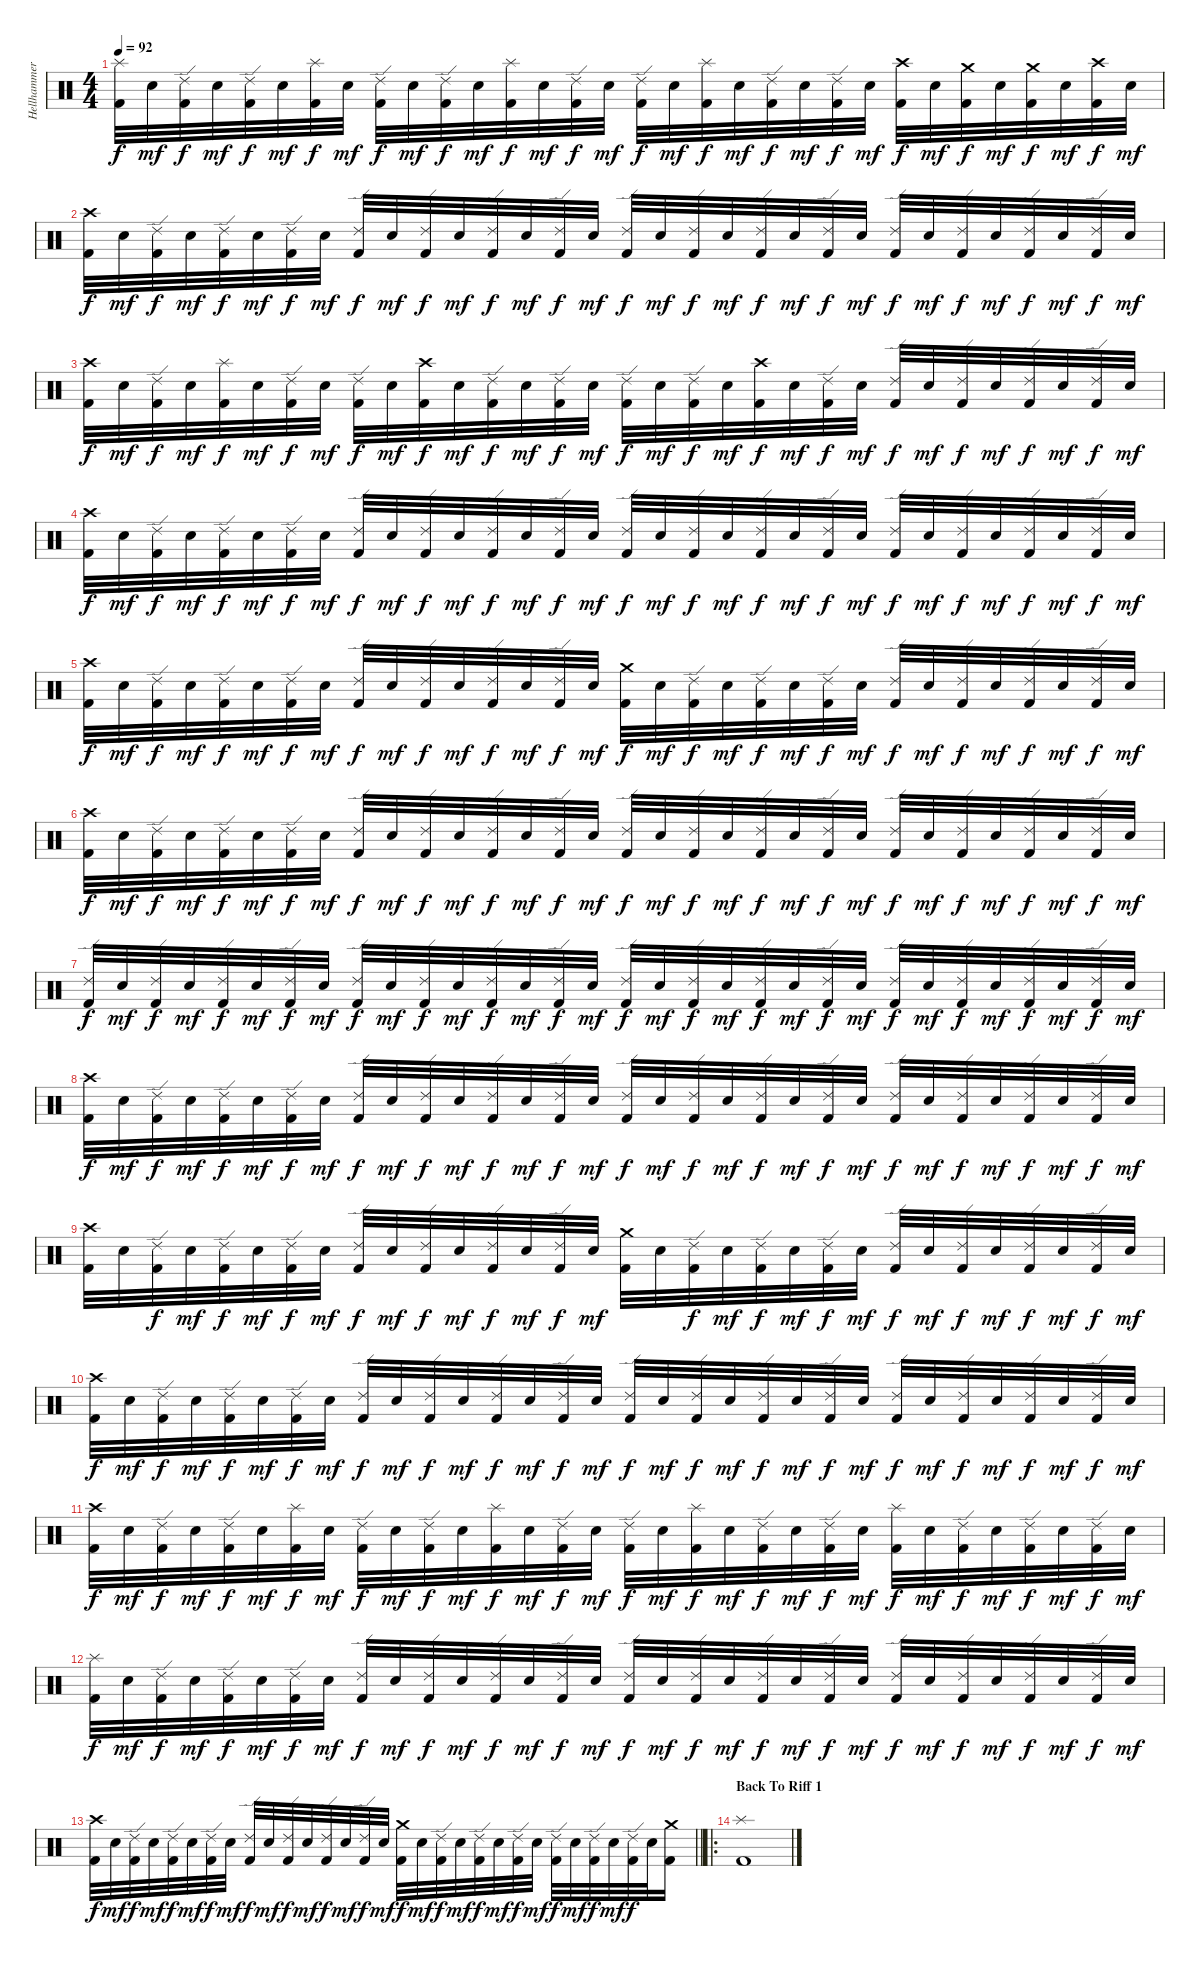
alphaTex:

\track ("Hellhammer" "Hellhammer") {instrument percussion}
\staff {score}
\articulation defaults
\ts (4 4)
\tempo 92
\clef neutral
\ks c
("Splash (hit)" "Kick (hit) 2").32{dy f} "Electric Snare (hit)".32{dy mf} ("Ride (edge) 2" "Kick (hit) 2").32{dy f} "Electric Snare (hit)".32{dy mf} ("Ride (edge) 2" "Kick (hit) 2").32{dy f} "Electric Snare (hit)".32{dy mf} ("Splash (hit)" "Kick (hit) 2").32{dy f} "Electric Snare (hit)".32{dy mf} ("Ride (edge) 2" "Kick (hit) 2").32{dy f} "Electric Snare (hit)".32{dy mf} ("Ride (edge) 2" "Kick (hit) 2").32{dy f} "Electric Snare (hit)".32{dy mf} ("Splash (hit)" "Kick (hit) 2").32{dy f} "Electric Snare (hit)".32{dy mf} ("Ride (edge) 2" "Kick (hit) 2").32{dy f} "Electric Snare (hit)".32{dy mf} ("Ride (edge) 2" "Kick (hit) 2").32{dy f} "Electric Snare (hit)".32{dy mf} ("Splash (hit)" "Kick (hit) 2").32{dy f} "Electric Snare (hit)".32{dy mf} ("Ride (edge) 2" "Kick (hit) 2").32{dy f} "Electric Snare (hit)".32{dy mf} ("Ride (edge) 2" "Kick (hit) 2").32{dy f} "Electric Snare (hit)".32{dy mf} ("Crash high (hit)" "Kick (hit) 2").32{dy f} "Electric Snare (hit)".32{dy mf} ("Crash medium (hit)" "Kick (hit) 2").32{dy f} "Electric Snare (hit)".32{dy mf} ("Crash medium (hit)" "Kick (hit) 2").32{dy f} "Electric Snare (hit)".32{dy mf} ("Crash high (hit)" "Kick (hit) 2").32{dy f} "Electric Snare (hit)".32{dy mf} |
("Crash high (hit)" "Kick (hit) 2").32{dy f} "Electric Snare (hit)".32{dy mf} ("Ride (edge) 2" "Kick (hit) 2").32{dy f} "Electric Snare (hit)".32{dy mf} ("Ride (edge) 2" "Kick (hit) 2").32{dy f} "Electric Snare (hit)".32{dy mf} ("Ride (edge) 2" "Kick (hit) 2").32{dy f} "Electric Snare (hit)".32{dy mf} ("Ride (edge) 2" "Kick (hit) 2").32{dy f} "Electric Snare (hit)".32{dy mf} ("Ride (edge) 2" "Kick (hit) 2").32{dy f} "Electric Snare (hit)".32{dy mf} ("Ride (edge) 2" "Kick (hit) 2").32{dy f} "Electric Snare (hit)".32{dy mf} ("Ride (edge) 2" "Kick (hit) 2").32{dy f} "Electric Snare (hit)".32{dy mf} ("Ride (edge) 2" "Kick (hit) 2").32{dy f} "Electric Snare (hit)".32{dy mf} ("Ride (edge) 2" "Kick (hit) 2").32{dy f} "Electric Snare (hit)".32{dy mf} ("Ride (edge) 2" "Kick (hit) 2").32{dy f} "Electric Snare (hit)".32{dy mf} ("Ride (edge) 2" "Kick (hit) 2").32{dy f} "Electric Snare (hit)".32{dy mf} ("Ride (edge) 2" "Kick (hit) 2").32{dy f} "Electric Snare (hit)".32{dy mf} ("Ride (edge) 2" "Kick (hit) 2").32{dy f} "Electric Snare (hit)".32{dy mf} ("Ride (edge) 2" "Kick (hit) 2").32{dy f} "Electric Snare (hit)".32{dy mf} ("Ride (edge) 2" "Kick (hit) 2").32{dy f} "Electric Snare (hit)".32{dy mf} |
("Crash high (hit)" "Kick (hit) 2").32{dy f} "Electric Snare (hit)".32{dy mf} ("Ride (edge) 2" "Kick (hit) 2").32{dy f} "Electric Snare (hit)".32{dy mf} ("Splash (hit)" "Kick (hit) 2").32{dy f} "Electric Snare (hit)".32{dy mf} ("Ride (edge) 2" "Kick (hit) 2").32{dy f} "Electric Snare (hit)".32{dy mf} ("Ride (edge) 2" "Kick (hit) 2").32{dy f} "Electric Snare (hit)".32{dy mf} ("Crash high (hit)" "Kick (hit) 2").32{dy f} "Electric Snare (hit)".32{dy mf} ("Ride (edge) 2" "Kick (hit) 2").32{dy f} "Electric Snare (hit)".32{dy mf} ("Ride (edge) 2" "Kick (hit) 2").32{dy f} "Electric Snare (hit)".32{dy mf} ("Ride (edge) 2" "Kick (hit) 2").32{dy f} "Electric Snare (hit)".32{dy mf} ("Ride (edge) 2" "Kick (hit) 2").32{dy f} "Electric Snare (hit)".32{dy mf} ("Crash high (hit)" "Kick (hit) 2").32{dy f} "Electric Snare (hit)".32{dy mf} ("Ride (edge) 2" "Kick (hit) 2").32{dy f} "Electric Snare (hit)".32{dy mf} ("Ride (edge) 2" "Kick (hit) 2").32{dy f} "Electric Snare (hit)".32{dy mf} ("Ride (edge) 2" "Kick (hit) 2").32{dy f} "Electric Snare (hit)".32{dy mf} ("Ride (edge) 2" "Kick (hit) 2").32{dy f} "Electric Snare (hit)".32{dy mf} ("Ride (edge) 2" "Kick (hit) 2").32{dy f} "Electric Snare (hit)".32{dy mf} |
("Crash high (hit)" "Kick (hit) 2").32{dy f} "Electric Snare (hit)".32{dy mf} ("Ride (edge) 2" "Kick (hit) 2").32{dy f} "Electric Snare (hit)".32{dy mf} ("Ride (edge) 2" "Kick (hit) 2").32{dy f} "Electric Snare (hit)".32{dy mf} ("Ride (edge) 2" "Kick (hit) 2").32{dy f} "Electric Snare (hit)".32{dy mf} ("Ride (edge) 2" "Kick (hit) 2").32{dy f} "Electric Snare (hit)".32{dy mf} ("Ride (edge) 2" "Kick (hit) 2").32{dy f} "Electric Snare (hit)".32{dy mf} ("Ride (edge) 2" "Kick (hit) 2").32{dy f} "Electric Snare (hit)".32{dy mf} ("Ride (edge) 2" "Kick (hit) 2").32{dy f} "Electric Snare (hit)".32{dy mf} ("Ride (edge) 2" "Kick (hit) 2").32{dy f} "Electric Snare (hit)".32{dy mf} ("Ride (edge) 2" "Kick (hit) 2").32{dy f} "Electric Snare (hit)".32{dy mf} ("Ride (edge) 2" "Kick (hit) 2").32{dy f} "Electric Snare (hit)".32{dy mf} ("Ride (edge) 2" "Kick (hit) 2").32{dy f} "Electric Snare (hit)".32{dy mf} ("Ride (edge) 2" "Kick (hit) 2").32{dy f} "Electric Snare (hit)".32{dy mf} ("Ride (edge) 2" "Kick (hit) 2").32{dy f} "Electric Snare (hit)".32{dy mf} ("Ride (edge) 2" "Kick (hit) 2").32{dy f} "Electric Snare (hit)".32{dy mf} ("Ride (edge) 2" "Kick (hit) 2").32{dy f} "Electric Snare (hit)".32{dy mf} |
("Crash high (hit)" "Kick (hit) 2").32{dy f} "Electric Snare (hit)".32{dy mf} ("Ride (edge) 2" "Kick (hit) 2").32{dy f} "Electric Snare (hit)".32{dy mf} ("Ride (edge) 2" "Kick (hit) 2").32{dy f} "Electric Snare (hit)".32{dy mf} ("Ride (edge) 2" "Kick (hit) 2").32{dy f} "Electric Snare (hit)".32{dy mf} ("Ride (edge) 2" "Kick (hit) 2").32{dy f} "Electric Snare (hit)".32{dy mf} ("Ride (edge) 2" "Kick (hit) 2").32{dy f} "Electric Snare (hit)".32{dy mf} ("Ride (edge) 2" "Kick (hit) 2").32{dy f} "Electric Snare (hit)".32{dy mf} ("Ride (edge) 2" "Kick (hit) 2").32{dy f} "Electric Snare (hit)".32{dy mf} ("Crash medium (hit)" "Kick (hit) 2").32{dy f} "Electric Snare (hit)".32{dy mf} ("Ride (edge) 2" "Kick (hit) 2").32{dy f} "Electric Snare (hit)".32{dy mf} ("Ride (edge) 2" "Kick (hit) 2").32{dy f} "Electric Snare (hit)".32{dy mf} ("Ride (edge) 2" "Kick (hit) 2").32{dy f} "Electric Snare (hit)".32{dy mf} ("Ride (edge) 2" "Kick (hit) 2").32{dy f} "Electric Snare (hit)".32{dy mf} ("Ride (edge) 2" "Kick (hit) 2").32{dy f} "Electric Snare (hit)".32{dy mf} ("Ride (edge) 2" "Kick (hit) 2").32{dy f} "Electric Snare (hit)".32{dy mf} ("Ride (edge) 2" "Kick (hit) 2").32{dy f} "Electric Snare (hit)".32{dy mf} |
("Crash high (hit)" "Kick (hit) 2").32{dy f} "Electric Snare (hit)".32{dy mf} ("Ride (edge) 2" "Kick (hit) 2").32{dy f} "Electric Snare (hit)".32{dy mf} ("Ride (edge) 2" "Kick (hit) 2").32{dy f} "Electric Snare (hit)".32{dy mf} ("Ride (edge) 2" "Kick (hit) 2").32{dy f} "Electric Snare (hit)".32{dy mf} ("Ride (edge) 2" "Kick (hit) 2").32{dy f} "Electric Snare (hit)".32{dy mf} ("Ride (edge) 2" "Kick (hit) 2").32{dy f} "Electric Snare (hit)".32{dy mf} ("Ride (edge) 2" "Kick (hit) 2").32{dy f} "Electric Snare (hit)".32{dy mf} ("Ride (edge) 2" "Kick (hit) 2").32{dy f} "Electric Snare (hit)".32{dy mf} ("Ride (edge) 2" "Kick (hit) 2").32{dy f} "Electric Snare (hit)".32{dy mf} ("Ride (edge) 2" "Kick (hit) 2").32{dy f} "Electric Snare (hit)".32{dy mf} ("Ride (edge) 2" "Kick (hit) 2").32{dy f} "Electric Snare (hit)".32{dy mf} ("Ride (edge) 2" "Kick (hit) 2").32{dy f} "Electric Snare (hit)".32{dy mf} ("Ride (edge) 2" "Kick (hit) 2").32{dy f} "Electric Snare (hit)".32{dy mf} ("Ride (edge) 2" "Kick (hit) 2").32{dy f} "Electric Snare (hit)".32{dy mf} ("Ride (edge) 2" "Kick (hit) 2").32{dy f} "Electric Snare (hit)".32{dy mf} ("Ride (edge) 2" "Kick (hit) 2").32{dy f} "Electric Snare (hit)".32{dy mf} |
("Ride (edge) 2" "Kick (hit) 2").32{dy f} "Electric Snare (hit)".32{dy mf} ("Ride (edge) 2" "Kick (hit) 2").32{dy f} "Electric Snare (hit)".32{dy mf} ("Ride (edge) 2" "Kick (hit) 2").32{dy f} "Electric Snare (hit)".32{dy mf} ("Ride (edge) 2" "Kick (hit) 2").32{dy f} "Electric Snare (hit)".32{dy mf} ("Ride (edge) 2" "Kick (hit) 2").32{dy f} "Electric Snare (hit)".32{dy mf} ("Ride (edge) 2" "Kick (hit) 2").32{dy f} "Electric Snare (hit)".32{dy mf} ("Ride (edge) 2" "Kick (hit) 2").32{dy f} "Electric Snare (hit)".32{dy mf} ("Ride (edge) 2" "Kick (hit) 2").32{dy f} "Electric Snare (hit)".32{dy mf} ("Ride (edge) 2" "Kick (hit) 2").32{dy f} "Electric Snare (hit)".32{dy mf} ("Ride (edge) 2" "Kick (hit) 2").32{dy f} "Electric Snare (hit)".32{dy mf} ("Ride (edge) 2" "Kick (hit) 2").32{dy f} "Electric Snare (hit)".32{dy mf} ("Ride (edge) 2" "Kick (hit) 2").32{dy f} "Electric Snare (hit)".32{dy mf} ("Ride (edge) 2" "Kick (hit) 2").32{dy f} "Electric Snare (hit)".32{dy mf} ("Ride (edge) 2" "Kick (hit) 2").32{dy f} "Electric Snare (hit)".32{dy mf} ("Ride (edge) 2" "Kick (hit) 2").32{dy f} "Electric Snare (hit)".32{dy mf} ("Ride (edge) 2" "Kick (hit) 2").32{dy f} "Electric Snare (hit)".32{dy mf} |
("Crash high (hit)" "Kick (hit) 2").32{dy f} "Electric Snare (hit)".32{dy mf} ("Ride (edge) 2" "Kick (hit) 2").32{dy f} "Electric Snare (hit)".32{dy mf} ("Ride (edge) 2" "Kick (hit) 2").32{dy f} "Electric Snare (hit)".32{dy mf} ("Ride (edge) 2" "Kick (hit) 2").32{dy f} "Electric Snare (hit)".32{dy mf} ("Ride (edge) 2" "Kick (hit) 2").32{dy f} "Electric Snare (hit)".32{dy mf} ("Ride (edge) 2" "Kick (hit) 2").32{dy f} "Electric Snare (hit)".32{dy mf} ("Ride (edge) 2" "Kick (hit) 2").32{dy f} "Electric Snare (hit)".32{dy mf} ("Ride (edge) 2" "Kick (hit) 2").32{dy f} "Electric Snare (hit)".32{dy mf} ("Ride (edge) 2" "Kick (hit) 2").32{dy f} "Electric Snare (hit)".32{dy mf} ("Ride (edge) 2" "Kick (hit) 2").32{dy f} "Electric Snare (hit)".32{dy mf} ("Ride (edge) 2" "Kick (hit) 2").32{dy f} "Electric Snare (hit)".32{dy mf} ("Ride (edge) 2" "Kick (hit) 2").32{dy f} "Electric Snare (hit)".32{dy mf} ("Ride (edge) 2" "Kick (hit) 2").32{dy f} "Electric Snare (hit)".32{dy mf} ("Ride (edge) 2" "Kick (hit) 2").32{dy f} "Electric Snare (hit)".32{dy mf} ("Ride (edge) 2" "Kick (hit) 2").32{dy f} "Electric Snare (hit)".32{dy mf} ("Ride (edge) 2" "Kick (hit) 2").32{dy f} "Electric Snare (hit)".32{dy mf} |
("Crash high (hit)" "Kick (hit) 2").32 "Electric Snare (hit)".32 ("Ride (edge) 2" "Kick (hit) 2").32{dy f} "Electric Snare (hit)".32{dy mf} ("Ride (edge) 2" "Kick (hit) 2").32{dy f} "Electric Snare (hit)".32{dy mf} ("Ride (edge) 2" "Kick (hit) 2").32{dy f} "Electric Snare (hit)".32{dy mf} ("Ride (edge) 2" "Kick (hit) 2").32{dy f} "Electric Snare (hit)".32{dy mf} ("Ride (edge) 2" "Kick (hit) 2").32{dy f} "Electric Snare (hit)".32{dy mf} ("Ride (edge) 2" "Kick (hit) 2").32{dy f} "Electric Snare (hit)".32{dy mf} ("Ride (edge) 2" "Kick (hit) 2").32{dy f} "Electric Snare (hit)".32{dy mf} ("Crash medium (hit)" "Kick (hit) 2").32 "Electric Snare (hit)".32 ("Ride (edge) 2" "Kick (hit) 2").32{dy f} "Electric Snare (hit)".32{dy mf} ("Ride (edge) 2" "Kick (hit) 2").32{dy f} "Electric Snare (hit)".32{dy mf} ("Ride (edge) 2" "Kick (hit) 2").32{dy f} "Electric Snare (hit)".32{dy mf} ("Ride (edge) 2" "Kick (hit) 2").32{dy f} "Electric Snare (hit)".32{dy mf} ("Ride (edge) 2" "Kick (hit) 2").32{dy f} "Electric Snare (hit)".32{dy mf} ("Ride (edge) 2" "Kick (hit) 2").32{dy f} "Electric Snare (hit)".32{dy mf} ("Ride (edge) 2" "Kick (hit) 2").32{dy f} "Electric Snare (hit)".32{dy mf} |
("Crash high (hit)" "Kick (hit) 2").32{dy f} "Electric Snare (hit)".32{dy mf} ("Ride (edge) 2" "Kick (hit) 2").32{dy f} "Electric Snare (hit)".32{dy mf} ("Ride (edge) 2" "Kick (hit) 2").32{dy f} "Electric Snare (hit)".32{dy mf} ("Ride (edge) 2" "Kick (hit) 2").32{dy f} "Electric Snare (hit)".32{dy mf} ("Ride (edge) 2" "Kick (hit) 2").32{dy f} "Electric Snare (hit)".32{dy mf} ("Ride (edge) 2" "Kick (hit) 2").32{dy f} "Electric Snare (hit)".32{dy mf} ("Ride (edge) 2" "Kick (hit) 2").32{dy f} "Electric Snare (hit)".32{dy mf} ("Ride (edge) 2" "Kick (hit) 2").32{dy f} "Electric Snare (hit)".32{dy mf} ("Ride (edge) 2" "Kick (hit) 2").32{dy f} "Electric Snare (hit)".32{dy mf} ("Ride (edge) 2" "Kick (hit) 2").32{dy f} "Electric Snare (hit)".32{dy mf} ("Ride (edge) 2" "Kick (hit) 2").32{dy f} "Electric Snare (hit)".32{dy mf} ("Ride (edge) 2" "Kick (hit) 2").32{dy f} "Electric Snare (hit)".32{dy mf} ("Ride (edge) 2" "Kick (hit) 2").32{dy f} "Electric Snare (hit)".32{dy mf} ("Ride (edge) 2" "Kick (hit) 2").32{dy f} "Electric Snare (hit)".32{dy mf} ("Ride (edge) 2" "Kick (hit) 2").32{dy f} "Electric Snare (hit)".32{dy mf} ("Ride (edge) 2" "Kick (hit) 2").32{dy f} "Electric Snare (hit)".32{dy mf} |
("Crash high (hit)" "Kick (hit) 2").32{dy f} "Electric Snare (hit)".32{dy mf} ("Ride (edge) 2" "Kick (hit) 2").32{dy f} "Electric Snare (hit)".32{dy mf} ("Ride (edge) 2" "Kick (hit) 2").32{dy f} "Electric Snare (hit)".32{dy mf} ("Splash (hit)" "Kick (hit) 2").32{dy f} "Electric Snare (hit)".32{dy mf} ("Ride (edge) 2" "Kick (hit) 2").32{dy f} "Electric Snare (hit)".32{dy mf} ("Ride (edge) 2" "Kick (hit) 2").32{dy f} "Electric Snare (hit)".32{dy mf} ("Splash (hit)" "Kick (hit) 2").32{dy f} "Electric Snare (hit)".32{dy mf} ("Ride (edge) 2" "Kick (hit) 2").32{dy f} "Electric Snare (hit)".32{dy mf} ("Ride (edge) 2" "Kick (hit) 2").32{dy f} "Electric Snare (hit)".32{dy mf} ("Splash (hit)" "Kick (hit) 2").32{dy f} "Electric Snare (hit)".32{dy mf} ("Ride (edge) 2" "Kick (hit) 2").32{dy f} "Electric Snare (hit)".32{dy mf} ("Ride (edge) 2" "Kick (hit) 2").32{dy f} "Electric Snare (hit)".32{dy mf} ("Splash (hit)" "Kick (hit) 2").32{dy f} "Electric Snare (hit)".32{dy mf} ("Ride (edge) 2" "Kick (hit) 2").32{dy f} "Electric Snare (hit)".32{dy mf} ("Ride (edge) 2" "Kick (hit) 2").32{dy f} "Electric Snare (hit)".32{dy mf} ("Ride (edge) 2" "Kick (hit) 2").32{dy f} "Electric Snare (hit)".32{dy mf} |
("Splash (hit)" "Kick (hit) 2").32{dy f} "Electric Snare (hit)".32{dy mf} ("Ride (edge) 2" "Kick (hit) 2").32{dy f} "Electric Snare (hit)".32{dy mf} ("Ride (edge) 2" "Kick (hit) 2").32{dy f} "Electric Snare (hit)".32{dy mf} ("Ride (edge) 2" "Kick (hit) 2").32{dy f} "Electric Snare (hit)".32{dy mf} ("Ride (edge) 2" "Kick (hit) 2").32{dy f} "Electric Snare (hit)".32{dy mf} ("Ride (edge) 2" "Kick (hit) 2").32{dy f} "Electric Snare (hit)".32{dy mf} ("Ride (edge) 2" "Kick (hit) 2").32{dy f} "Electric Snare (hit)".32{dy mf} ("Ride (edge) 2" "Kick (hit) 2").32{dy f} "Electric Snare (hit)".32{dy mf} ("Ride (edge) 2" "Kick (hit) 2").32{dy f} "Electric Snare (hit)".32{dy mf} ("Ride (edge) 2" "Kick (hit) 2").32{dy f} "Electric Snare (hit)".32{dy mf} ("Ride (edge) 2" "Kick (hit) 2").32{dy f} "Electric Snare (hit)".32{dy mf} ("Ride (edge) 2" "Kick (hit) 2").32{dy f} "Electric Snare (hit)".32{dy mf} ("Ride (edge) 2" "Kick (hit) 2").32{dy f} "Electric Snare (hit)".32{dy mf} ("Ride (edge) 2" "Kick (hit) 2").32{dy f} "Electric Snare (hit)".32{dy mf} ("Ride (edge) 2" "Kick (hit) 2").32{dy f} "Electric Snare (hit)".32{dy mf} ("Ride (edge) 2" "Kick (hit) 2").32{dy f} "Electric Snare (hit)".32{dy mf} |
\barLineRight lightlight
("Crash high (hit)" "Kick (hit) 2").32{dy f} "Electric Snare (hit)".32{dy mf} ("Ride (edge) 2" "Kick (hit) 2").32{dy f} "Electric Snare (hit)".32{dy mf} ("Ride (edge) 2" "Kick (hit) 2").32{dy f} "Electric Snare (hit)".32{dy mf} ("Ride (edge) 2" "Kick (hit) 2").32{dy f} "Electric Snare (hit)".32{dy mf} ("Ride (edge) 2" "Kick (hit) 2").32{dy f} "Electric Snare (hit)".32{dy mf} ("Ride (edge) 2" "Kick (hit) 2").32{dy f} "Electric Snare (hit)".32{dy mf} ("Ride (edge) 2" "Kick (hit) 2").32{dy f} "Electric Snare (hit)".32{dy mf} ("Ride (edge) 2" "Kick (hit) 2").32{dy f} "Electric Snare (hit)".32{dy mf} ("Crash medium (hit)" "Kick (hit) 2").32{dy f} "Electric Snare (hit)".32{dy mf} ("Ride (edge) 2" "Kick (hit) 2").32{dy f} "Electric Snare (hit)".32{dy mf} ("Ride (edge) 2" "Kick (hit) 2").32{dy f} "Electric Snare (hit)".32{dy mf} ("Ride (edge) 2" "Kick (hit) 2").32{dy f} "Electric Snare (hit)".32{dy mf} ("Ride (edge) 2" "Kick (hit) 2").32{dy f} "Electric Snare (hit)".32{dy mf} ("Ride (edge) 2" "Kick (hit) 2").32{dy f} "Electric Snare (hit)".32{dy mf} ("Ride (edge) 2" "Kick (hit) 2").32{dy f} "Electric Snare (hit)".32 ("Crash medium (hit)" "Kick (hit) 2").16 |
\ro
\section ("" "Back To Riff 1")
("Splash (hit)" "Kick (hit) 2").1
